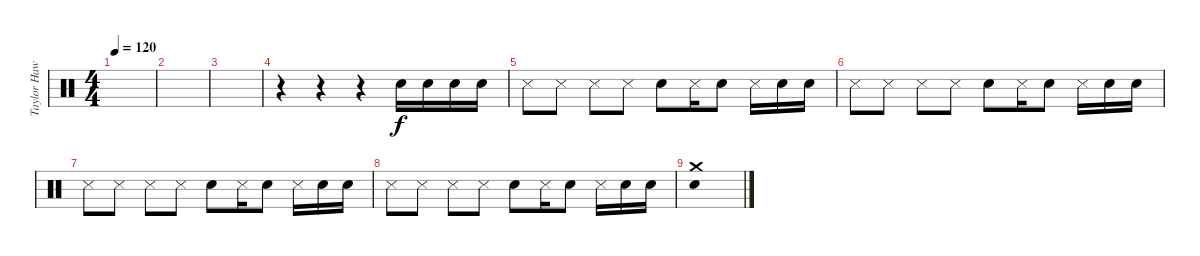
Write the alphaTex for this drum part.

\track ("Taylor Hawkins" "Taylor Haw") {instrument percussion}
\staff {score}
\articulation defaults
\ts (4 4)
\tempo 120
\clef neutral
\ks c
|
|
|
r.4 r.4 r.4 "Metronome (bell)".16 "Metronome (bell)".16 "Metronome (bell)".16 "Metronome (bell)".16 |
"Metronome (hit)".8 "Metronome (hit)".8 "Metronome (hit)".8 "Metronome (hit)".8 "Metronome (bell)".8 "Metronome (hit)".16 "Metronome (bell)".8 "Metronome (hit)".16 "Metronome (bell)".16 "Metronome (bell)".16 |
"Metronome (hit)".8 "Metronome (hit)".8 "Metronome (hit)".8 "Metronome (hit)".8 "Metronome (bell)".8 "Metronome (hit)".16 "Metronome (bell)".8 "Metronome (hit)".16 "Metronome (bell)".16 "Metronome (bell)".16 |
"Metronome (hit)".8 "Metronome (hit)".8 "Metronome (hit)".8 "Metronome (hit)".8 "Metronome (bell)".8 "Metronome (hit)".16 "Metronome (bell)".8 "Metronome (hit)".16 "Metronome (bell)".16 "Metronome (bell)".16 |
"Metronome (hit)".8 "Metronome (hit)".8 "Metronome (hit)".8 "Metronome (hit)".8 "Metronome (bell)".8 "Metronome (hit)".16 "Metronome (bell)".8 "Metronome (hit)".16 "Metronome (bell)".16 "Metronome (bell)".16 |
("Metronome (bell)" "Crash medium (hit)").1
